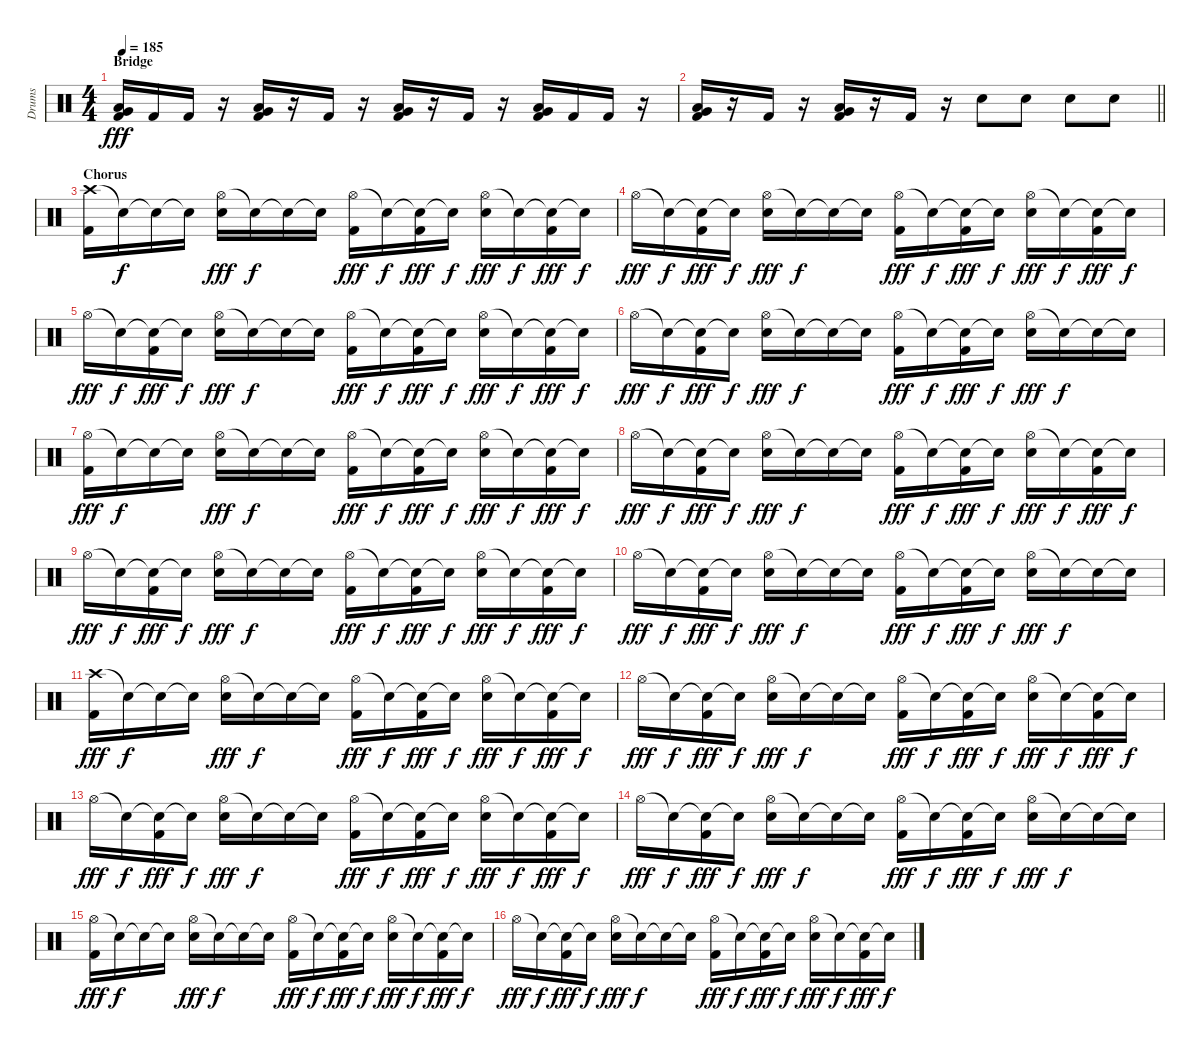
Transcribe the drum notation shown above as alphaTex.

\track ("Drums" "Drums") {instrument percussion}
\staff {score}
\articulation defaults
\ts (4 4)
\section ("" "Bridge")
\tempo 185
\clef neutral
\ks c
("Very Low Tom (hit)" "Low Floor Tom (hit)" "Kick (hit) 2").16{dy fff} "Kick (hit) 2".16 "Kick (hit) 2".16 r.16 ("Very Low Tom (hit)" "Low Floor Tom (hit)" "Kick (hit) 2").16 r.16 "Kick (hit) 2".16 r.16 ("Very Low Tom (hit)" "Low Floor Tom (hit)" "Kick (hit) 2").16 r.16 "Kick (hit) 2".16 r.16 ("Very Low Tom (hit)" "Low Floor Tom (hit)" "Kick (hit) 2").16 "Kick (hit) 2".16 "Kick (hit) 2".16 r.16 |
\barLineRight lightlight
("Very Low Tom (hit)" "Low Floor Tom (hit)" "Kick (hit) 2").16 r.16 "Kick (hit) 2".16 r.16 ("Very Low Tom (hit)" "Low Floor Tom (hit)" "Kick (hit) 2").16 r.16 "Kick (hit) 2".16 r.16 "Electric Snare (hit)".8 "Electric Snare (hit)".8 "Electric Snare (hit)".8 "Electric Snare (hit)".8 |
\section ("" "Chorus")
("Crash high (hit)" "Kick (hit) 2").16 "Snare (hit)"{t}.16{dy f} "Snare (hit)"{t}.16 "Snare (hit)"{t}.16 ("Hi-Hat (open)" "Electric Snare (hit)").16{dy fff} "Snare (hit)"{t}.16{dy f} "Snare (hit)"{t}.16 "Snare (hit)"{t}.16 ("Hi-Hat (open)" "Kick (hit) 2").16{dy fff} "Snare (hit)"{t}.16{dy f} ("Snare (hit)"{t} "Kick (hit) 2").16{dy fff} "Snare (hit)"{t}.16{dy f} ("Hi-Hat (open)" "Electric Snare (hit)").16{dy fff} "Snare (hit)"{t}.16{dy f} ("Snare (hit)"{t} "Kick (hit) 2").16{dy fff} "Snare (hit)"{t}.16{dy f} |
"Hi-Hat (open)".16{dy fff} "Snare (hit)"{t}.16{dy f} ("Snare (hit)"{t} "Kick (hit) 2").16{dy fff} "Snare (hit)"{t}.16{dy f} ("Hi-Hat (open)" "Electric Snare (hit)").16{dy fff} "Snare (hit)"{t}.16{dy f} "Snare (hit)"{t}.16 "Snare (hit)"{t}.16 ("Hi-Hat (open)" "Kick (hit) 2").16{dy fff} "Snare (hit)"{t}.16{dy f} ("Snare (hit)"{t} "Kick (hit) 2").16{dy fff} "Snare (hit)"{t}.16{dy f} ("Hi-Hat (open)" "Electric Snare (hit)").16{dy fff} "Snare (hit)"{t}.16{dy f} ("Snare (hit)"{t} "Kick (hit) 2").16{dy fff} "Snare (hit)"{t}.16{dy f} |
"Hi-Hat (open)".16{dy fff} "Snare (hit)"{t}.16{dy f} ("Snare (hit)"{t} "Kick (hit) 2").16{dy fff} "Snare (hit)"{t}.16{dy f} ("Hi-Hat (open)" "Electric Snare (hit)").16{dy fff} "Snare (hit)"{t}.16{dy f} "Snare (hit)"{t}.16 "Snare (hit)"{t}.16 ("Hi-Hat (open)" "Kick (hit) 2").16{dy fff} "Snare (hit)"{t}.16{dy f} ("Snare (hit)"{t} "Kick (hit) 2").16{dy fff} "Snare (hit)"{t}.16{dy f} ("Hi-Hat (open)" "Electric Snare (hit)").16{dy fff} "Snare (hit)"{t}.16{dy f} ("Snare (hit)"{t} "Kick (hit) 2").16{dy fff} "Snare (hit)"{t}.16{dy f} |
"Hi-Hat (open)".16{dy fff} "Snare (hit)"{t}.16{dy f} ("Snare (hit)"{t} "Kick (hit) 2").16{dy fff} "Snare (hit)"{t}.16{dy f} ("Hi-Hat (open)" "Electric Snare (hit)").16{dy fff} "Snare (hit)"{t}.16{dy f} "Snare (hit)"{t}.16 "Snare (hit)"{t}.16 ("Hi-Hat (open)" "Kick (hit) 2").16{dy fff} "Snare (hit)"{t}.16{dy f} ("Snare (hit)"{t} "Kick (hit) 2").16{dy fff} "Snare (hit)"{t}.16{dy f} ("Hi-Hat (open)" "Electric Snare (hit)").16{dy fff} "Snare (hit)"{t}.16{dy f} "Snare (hit)"{t}.16 "Snare (hit)"{t}.16 |
("Hi-Hat (open)" "Kick (hit) 2").16{dy fff} "Snare (hit)"{t}.16{dy f} "Snare (hit)"{t}.16 "Snare (hit)"{t}.16 ("Hi-Hat (open)" "Electric Snare (hit)").16{dy fff} "Snare (hit)"{t}.16{dy f} "Snare (hit)"{t}.16 "Snare (hit)"{t}.16 ("Hi-Hat (open)" "Kick (hit) 2").16{dy fff} "Snare (hit)"{t}.16{dy f} ("Snare (hit)"{t} "Kick (hit) 2").16{dy fff} "Snare (hit)"{t}.16{dy f} ("Hi-Hat (open)" "Electric Snare (hit)").16{dy fff} "Snare (hit)"{t}.16{dy f} ("Snare (hit)"{t} "Kick (hit) 2").16{dy fff} "Snare (hit)"{t}.16{dy f} |
"Hi-Hat (open)".16{dy fff} "Snare (hit)"{t}.16{dy f} ("Snare (hit)"{t} "Kick (hit) 2").16{dy fff} "Snare (hit)"{t}.16{dy f} ("Hi-Hat (open)" "Electric Snare (hit)").16{dy fff} "Snare (hit)"{t}.16{dy f} "Snare (hit)"{t}.16 "Snare (hit)"{t}.16 ("Hi-Hat (open)" "Kick (hit) 2").16{dy fff} "Snare (hit)"{t}.16{dy f} ("Snare (hit)"{t} "Kick (hit) 2").16{dy fff} "Snare (hit)"{t}.16{dy f} ("Hi-Hat (open)" "Electric Snare (hit)").16{dy fff} "Snare (hit)"{t}.16{dy f} ("Snare (hit)"{t} "Kick (hit) 2").16{dy fff} "Snare (hit)"{t}.16{dy f} |
"Hi-Hat (open)".16{dy fff} "Snare (hit)"{t}.16{dy f} ("Snare (hit)"{t} "Kick (hit) 2").16{dy fff} "Snare (hit)"{t}.16{dy f} ("Hi-Hat (open)" "Electric Snare (hit)").16{dy fff} "Snare (hit)"{t}.16{dy f} "Snare (hit)"{t}.16 "Snare (hit)"{t}.16 ("Hi-Hat (open)" "Kick (hit) 2").16{dy fff} "Snare (hit)"{t}.16{dy f} ("Snare (hit)"{t} "Kick (hit) 2").16{dy fff} "Snare (hit)"{t}.16{dy f} ("Hi-Hat (open)" "Electric Snare (hit)").16{dy fff} "Snare (hit)"{t}.16{dy f} ("Snare (hit)"{t} "Kick (hit) 2").16{dy fff} "Snare (hit)"{t}.16{dy f} |
"Hi-Hat (open)".16{dy fff} "Snare (hit)"{t}.16{dy f} ("Snare (hit)"{t} "Kick (hit) 2").16{dy fff} "Snare (hit)"{t}.16{dy f} ("Hi-Hat (open)" "Electric Snare (hit)").16{dy fff} "Snare (hit)"{t}.16{dy f} "Snare (hit)"{t}.16 "Snare (hit)"{t}.16 ("Hi-Hat (open)" "Kick (hit) 2").16{dy fff} "Snare (hit)"{t}.16{dy f} ("Snare (hit)"{t} "Kick (hit) 2").16{dy fff} "Snare (hit)"{t}.16{dy f} ("Hi-Hat (open)" "Electric Snare (hit)").16{dy fff} "Snare (hit)"{t}.16{dy f} "Snare (hit)"{t}.16 "Snare (hit)"{t}.16 |
("Crash high (hit)" "Kick (hit) 2").16{dy fff} "Snare (hit)"{t}.16{dy f} "Snare (hit)"{t}.16 "Snare (hit)"{t}.16 ("Hi-Hat (open)" "Electric Snare (hit)").16{dy fff} "Snare (hit)"{t}.16{dy f} "Snare (hit)"{t}.16 "Snare (hit)"{t}.16 ("Hi-Hat (open)" "Kick (hit) 2").16{dy fff} "Snare (hit)"{t}.16{dy f} ("Snare (hit)"{t} "Kick (hit) 2").16{dy fff} "Snare (hit)"{t}.16{dy f} ("Hi-Hat (open)" "Electric Snare (hit)").16{dy fff} "Snare (hit)"{t}.16{dy f} ("Snare (hit)"{t} "Kick (hit) 2").16{dy fff} "Snare (hit)"{t}.16{dy f} |
"Hi-Hat (open)".16{dy fff} "Snare (hit)"{t}.16{dy f} ("Snare (hit)"{t} "Kick (hit) 2").16{dy fff} "Snare (hit)"{t}.16{dy f} ("Hi-Hat (open)" "Electric Snare (hit)").16{dy fff} "Snare (hit)"{t}.16{dy f} "Snare (hit)"{t}.16 "Snare (hit)"{t}.16 ("Hi-Hat (open)" "Kick (hit) 2").16{dy fff} "Snare (hit)"{t}.16{dy f} ("Snare (hit)"{t} "Kick (hit) 2").16{dy fff} "Snare (hit)"{t}.16{dy f} ("Hi-Hat (open)" "Electric Snare (hit)").16{dy fff} "Snare (hit)"{t}.16{dy f} ("Snare (hit)"{t} "Kick (hit) 2").16{dy fff} "Snare (hit)"{t}.16{dy f} |
"Hi-Hat (open)".16{dy fff} "Snare (hit)"{t}.16{dy f} ("Snare (hit)"{t} "Kick (hit) 2").16{dy fff} "Snare (hit)"{t}.16{dy f} ("Hi-Hat (open)" "Electric Snare (hit)").16{dy fff} "Snare (hit)"{t}.16{dy f} "Snare (hit)"{t}.16 "Snare (hit)"{t}.16 ("Hi-Hat (open)" "Kick (hit) 2").16{dy fff} "Snare (hit)"{t}.16{dy f} ("Snare (hit)"{t} "Kick (hit) 2").16{dy fff} "Snare (hit)"{t}.16{dy f} ("Hi-Hat (open)" "Electric Snare (hit)").16{dy fff} "Snare (hit)"{t}.16{dy f} ("Snare (hit)"{t} "Kick (hit) 2").16{dy fff} "Snare (hit)"{t}.16{dy f} |
"Hi-Hat (open)".16{dy fff} "Snare (hit)"{t}.16{dy f} ("Snare (hit)"{t} "Kick (hit) 2").16{dy fff} "Snare (hit)"{t}.16{dy f} ("Hi-Hat (open)" "Electric Snare (hit)").16{dy fff} "Snare (hit)"{t}.16{dy f} "Snare (hit)"{t}.16 "Snare (hit)"{t}.16 ("Hi-Hat (open)" "Kick (hit) 2").16{dy fff} "Snare (hit)"{t}.16{dy f} ("Snare (hit)"{t} "Kick (hit) 2").16{dy fff} "Snare (hit)"{t}.16{dy f} ("Hi-Hat (open)" "Electric Snare (hit)").16{dy fff} "Snare (hit)"{t}.16{dy f} "Snare (hit)"{t}.16 "Snare (hit)"{t}.16 |
("Hi-Hat (open)" "Kick (hit) 2").16{dy fff} "Snare (hit)"{t}.16{dy f} "Snare (hit)"{t}.16 "Snare (hit)"{t}.16 ("Hi-Hat (open)" "Electric Snare (hit)").16{dy fff} "Snare (hit)"{t}.16{dy f} "Snare (hit)"{t}.16 "Snare (hit)"{t}.16 ("Hi-Hat (open)" "Kick (hit) 2").16{dy fff} "Snare (hit)"{t}.16{dy f} ("Snare (hit)"{t} "Kick (hit) 2").16{dy fff} "Snare (hit)"{t}.16{dy f} ("Hi-Hat (open)" "Electric Snare (hit)").16{dy fff} "Snare (hit)"{t}.16{dy f} ("Snare (hit)"{t} "Kick (hit) 2").16{dy fff} "Snare (hit)"{t}.16{dy f} |
"Hi-Hat (open)".16{dy fff} "Snare (hit)"{t}.16{dy f} ("Snare (hit)"{t} "Kick (hit) 2").16{dy fff} "Snare (hit)"{t}.16{dy f} ("Hi-Hat (open)" "Electric Snare (hit)").16{dy fff} "Snare (hit)"{t}.16{dy f} "Snare (hit)"{t}.16 "Snare (hit)"{t}.16 ("Hi-Hat (open)" "Kick (hit) 2").16{dy fff} "Snare (hit)"{t}.16{dy f} ("Snare (hit)"{t} "Kick (hit) 2").16{dy fff} "Snare (hit)"{t}.16{dy f} ("Hi-Hat (open)" "Electric Snare (hit)").16{dy fff} "Snare (hit)"{t}.16{dy f} ("Snare (hit)"{t} "Kick (hit) 2").16{dy fff} "Snare (hit)"{t}.16{dy f}
